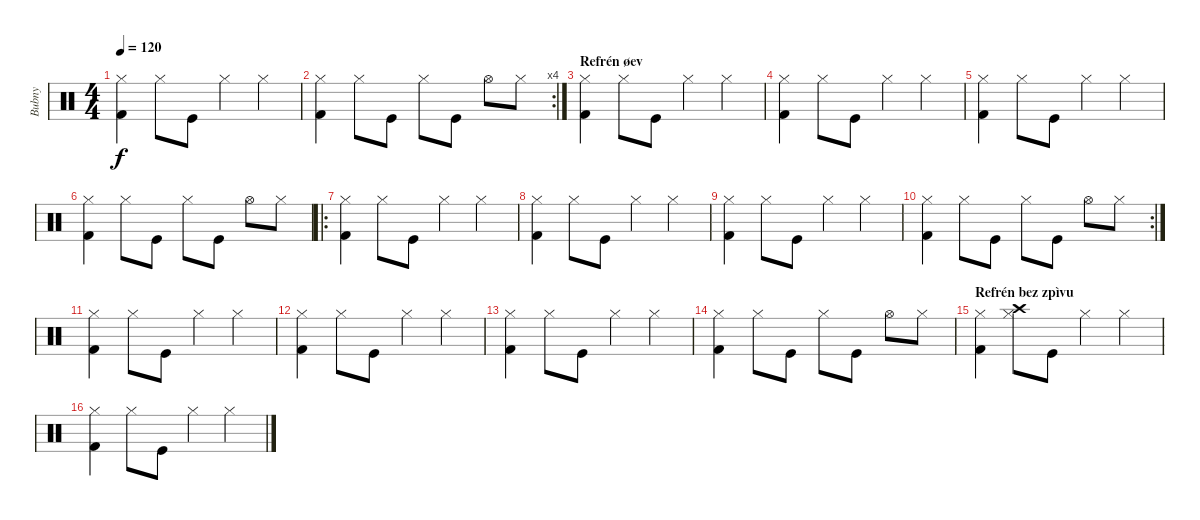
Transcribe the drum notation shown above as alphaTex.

\track ("Bubny" "Bubny") {instrument percussion}
\staff {score}
\articulation defaults
\ts (4 4)
\tempo 120
\clef neutral
\ks c
("Hi-Hat (closed)" "Kick (hit) 2").4{dy f} "Hi-Hat (closed)".8 "Kick (hit)".8 "Hi-Hat (closed)".4 "Hi-Hat (closed)".4 |
\rc 4
("Hi-Hat (closed)" "Kick (hit) 2").4 "Hi-Hat (closed)".8 "Kick (hit)".8 "Hi-Hat (closed)".8 "Kick (hit)".8 "Hi-Hat (open)".8 "Hi-Hat (closed)".8 |
\section ("" "Refrén øev")
("Hi-Hat (closed)" "Kick (hit) 2").4 "Hi-Hat (closed)".8 "Kick (hit)".8 "Hi-Hat (closed)".4 "Hi-Hat (closed)".4 |
("Hi-Hat (closed)" "Kick (hit) 2").4 "Hi-Hat (closed)".8 "Kick (hit)".8 "Hi-Hat (closed)".4 "Hi-Hat (closed)".4 |
("Hi-Hat (closed)" "Kick (hit) 2").4 "Hi-Hat (closed)".8 "Kick (hit)".8 "Hi-Hat (closed)".4 "Hi-Hat (closed)".4 |
("Hi-Hat (closed)" "Kick (hit) 2").4 "Hi-Hat (closed)".8 "Kick (hit)".8 "Hi-Hat (closed)".8 "Kick (hit)".8 "Hi-Hat (open)".8 "Hi-Hat (closed)".8 |
\ro
("Hi-Hat (closed)" "Kick (hit) 2").4 "Hi-Hat (closed)".8 "Kick (hit)".8 "Hi-Hat (closed)".4 "Hi-Hat (closed)".4 |
("Hi-Hat (closed)" "Kick (hit) 2").4 "Hi-Hat (closed)".8 "Kick (hit)".8 "Hi-Hat (closed)".4 "Hi-Hat (closed)".4 |
("Hi-Hat (closed)" "Kick (hit) 2").4 "Hi-Hat (closed)".8 "Kick (hit)".8 "Hi-Hat (closed)".4 "Hi-Hat (closed)".4 |
\rc 2
("Hi-Hat (closed)" "Kick (hit) 2").4 "Hi-Hat (closed)".8 "Kick (hit)".8 "Hi-Hat (closed)".8 "Kick (hit)".8 "Hi-Hat (open)".8 "Hi-Hat (closed)".8 |
("Hi-Hat (closed)" "Kick (hit) 2").4 "Hi-Hat (closed)".8 "Kick (hit)".8 "Hi-Hat (closed)".4 "Hi-Hat (closed)".4 |
("Hi-Hat (closed)" "Kick (hit) 2").4 "Hi-Hat (closed)".8 "Kick (hit)".8 "Hi-Hat (closed)".4 "Hi-Hat (closed)".4 |
("Hi-Hat (closed)" "Kick (hit) 2").4 "Hi-Hat (closed)".8 "Kick (hit)".8 "Hi-Hat (closed)".4 "Hi-Hat (closed)".4 |
("Hi-Hat (closed)" "Kick (hit) 2").4 "Hi-Hat (closed)".8 "Kick (hit)".8 "Hi-Hat (closed)".8 "Kick (hit)".8 "Hi-Hat (open)".8 "Hi-Hat (closed)".8 |
\section ("" "Refrén bez zpìvu")
("Hi-Hat (closed)" "Kick (hit) 2").4 ("Hi-Hat (closed)" "Crash high (hit)").8 "Kick (hit)".8 "Hi-Hat (closed)".4 "Hi-Hat (closed)".4 |
("Hi-Hat (closed)" "Kick (hit) 2").4 "Hi-Hat (closed)".8 "Kick (hit)".8 "Hi-Hat (closed)".4 "Hi-Hat (closed)".4
